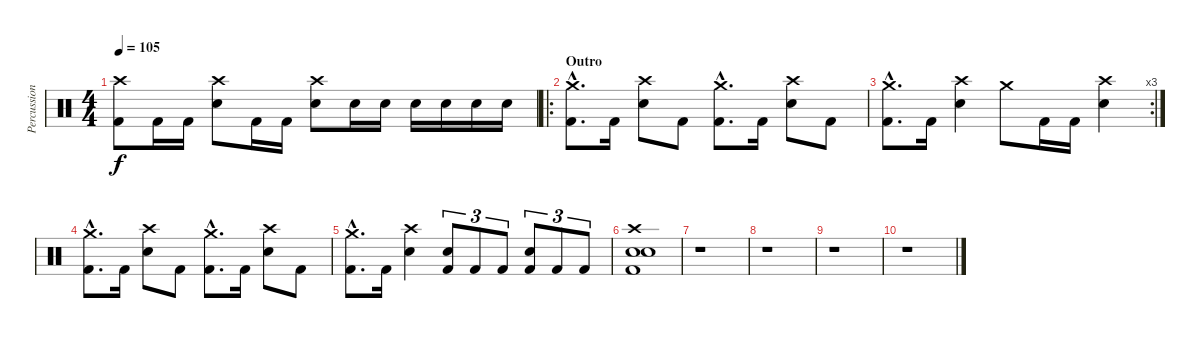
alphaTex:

\track ("Percussions" "Percussion") {instrument percussion}
\staff {score}
\articulation defaults
\ts (4 4)
\tempo 105
\clef neutral
\ks c
("Kick (hit) 2" "Crash high (hit)").8{dy f} "Kick (hit) 2".16 "Kick (hit) 2".16 ("Snare (hit) 2" "Crash high (hit)").8 "Kick (hit) 2".16 "Kick (hit) 2".16 ("Snare (hit) 2" "Crash high (hit)").8 "Snare (hit) 2".16 "Snare (hit) 2".16 "Snare (hit) 2".16 "Snare (hit) 2".16 "Snare (hit) 2".16 "Snare (hit) 2".16 |
\ro
\section ("" "Outro")
("Kick (hit) 2"{hac} "Crash medium (hit)"{hac}).8{d} "Kick (hit) 2".16 ("Snare (hit) 2" "Crash high (hit)").8 "Kick (hit) 2".8 ("Kick (hit) 2"{hac} "Crash medium (hit)"{hac}).8{d} "Kick (hit) 2".16 ("Snare (hit) 2" "Crash high (hit)").8 "Kick (hit) 2".8 |
\rc 3
("Kick (hit) 2"{hac} "Crash medium (hit)"{hac}).8{d} "Kick (hit) 2".16 ("Snare (hit) 2" "Crash high (hit)").4 "Crash medium (hit)".8 "Kick (hit) 2".16 "Kick (hit) 2".16 ("Snare (hit) 2" "Crash high (hit)").4 |
("Kick (hit) 2"{hac} "Crash medium (hit)"{hac}).8{d} "Kick (hit) 2".16 ("Snare (hit) 2" "Crash high (hit)").8 "Kick (hit) 2".8 ("Kick (hit) 2"{hac} "Crash medium (hit)"{hac}).8{d} "Kick (hit) 2".16 ("Snare (hit) 2" "Crash high (hit)").8 "Kick (hit) 2".8 |
("Kick (hit) 2"{hac} "Crash medium (hit)"{hac}).8{d} "Kick (hit) 2".16 ("Snare (hit) 2" "Crash high (hit)").4 ("Kick (hit) 2" "Snare (hit) 2").8{tu (3 2)} "Kick (hit) 2".8{tu (3 2)} "Kick (hit) 2".8{tu (3 2)} ("Kick (hit) 2" "Snare (hit) 2").8{tu (3 2)} "Kick (hit) 2".8{tu (3 2)} "Kick (hit) 2".8{tu (3 2)} |
("Kick (hit) 2" "Snare (hit) 2" "Snare (hit) 2" "Crash high (hit)").1 |
r.1 |
r.1 |
r.1 |
r.1
